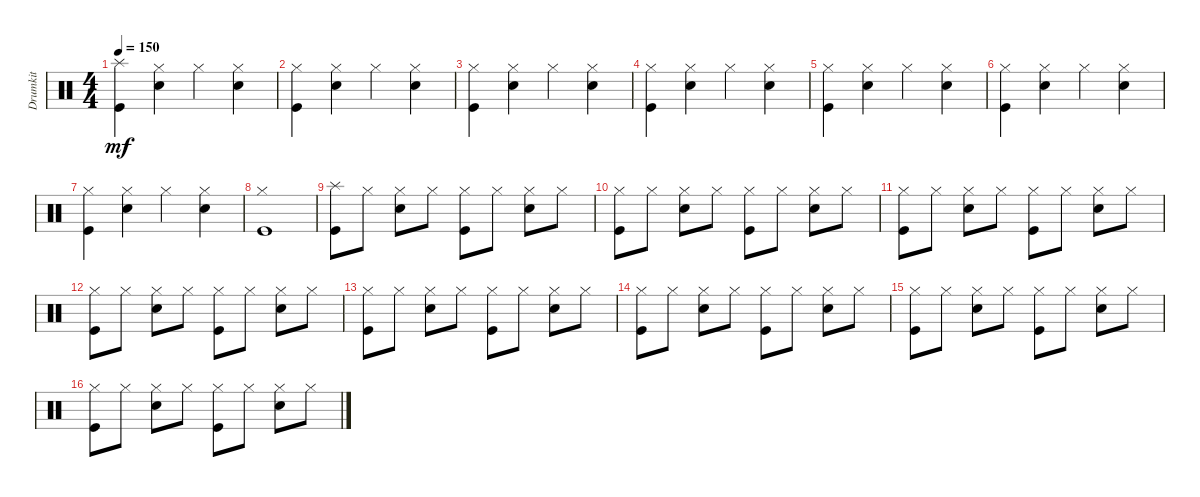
\track ("Drumkit" "Drumkit") {instrument percussion}
\staff {score}
\articulation defaults
\ts (4 4)
\tempo 150
\clef neutral
\ks c
("Kick (hit)" "Splash (hit)").4{dy mf} ("Hi-Hat (closed)" "Snare (hit) 2").4 "Hi-Hat (closed)".4 ("Hi-Hat (closed)" "Snare (hit) 2").4 |
("Kick (hit)" "Hi-Hat (closed)").4 ("Hi-Hat (closed)" "Snare (hit) 2").4 "Hi-Hat (closed)".4 ("Hi-Hat (closed)" "Snare (hit) 2").4 |
("Kick (hit)" "Hi-Hat (closed)").4 ("Hi-Hat (closed)" "Snare (hit) 2").4 "Hi-Hat (closed)".4 ("Hi-Hat (closed)" "Snare (hit) 2").4 |
("Kick (hit)" "Hi-Hat (closed)").4 ("Hi-Hat (closed)" "Snare (hit) 2").4 "Hi-Hat (closed)".4 ("Hi-Hat (closed)" "Snare (hit) 2").4 |
("Kick (hit)" "Hi-Hat (closed)").4 ("Hi-Hat (closed)" "Snare (hit) 2").4 "Hi-Hat (closed)".4 ("Hi-Hat (closed)" "Snare (hit) 2").4 |
("Kick (hit)" "Hi-Hat (closed)").4 ("Hi-Hat (closed)" "Snare (hit) 2").4 "Hi-Hat (closed)".4 ("Hi-Hat (closed)" "Snare (hit) 2").4 |
("Kick (hit)" "Hi-Hat (closed)").4 ("Hi-Hat (closed)" "Snare (hit) 2").4 "Hi-Hat (closed)".4 ("Hi-Hat (closed)" "Snare (hit) 2").4 |
("Kick (hit)" "Hi-Hat (closed)").1 |
("Kick (hit)" "Splash (hit)").8 "Hi-Hat (closed)".8 ("Hi-Hat (closed)" "Snare (hit) 2").8 "Hi-Hat (closed)".8 ("Hi-Hat (closed)" "Kick (hit)").8 "Hi-Hat (closed)".8 ("Hi-Hat (closed)" "Snare (hit) 2").8 "Hi-Hat (closed)".8 |
("Kick (hit)" "Hi-Hat (closed)").8 "Hi-Hat (closed)".8 ("Hi-Hat (closed)" "Snare (hit) 2").8 "Hi-Hat (closed)".8 ("Hi-Hat (closed)" "Kick (hit)").8 "Hi-Hat (closed)".8 ("Hi-Hat (closed)" "Snare (hit) 2").8 "Hi-Hat (closed)".8 |
("Kick (hit)" "Hi-Hat (closed)").8 "Hi-Hat (closed)".8 ("Hi-Hat (closed)" "Snare (hit) 2").8 "Hi-Hat (closed)".8 ("Hi-Hat (closed)" "Kick (hit)").8 "Hi-Hat (closed)".8 ("Hi-Hat (closed)" "Snare (hit) 2").8 "Hi-Hat (closed)".8 |
("Kick (hit)" "Hi-Hat (closed)").8 "Hi-Hat (closed)".8 ("Hi-Hat (closed)" "Snare (hit) 2").8 "Hi-Hat (closed)".8 ("Hi-Hat (closed)" "Kick (hit)").8 "Hi-Hat (closed)".8 ("Hi-Hat (closed)" "Snare (hit) 2").8 "Hi-Hat (closed)".8 |
("Kick (hit)" "Hi-Hat (closed)").8 "Hi-Hat (closed)".8 ("Hi-Hat (closed)" "Snare (hit) 2").8 "Hi-Hat (closed)".8 ("Hi-Hat (closed)" "Kick (hit)").8 "Hi-Hat (closed)".8 ("Hi-Hat (closed)" "Snare (hit) 2").8 "Hi-Hat (closed)".8 |
("Kick (hit)" "Hi-Hat (closed)").8 "Hi-Hat (closed)".8 ("Hi-Hat (closed)" "Snare (hit) 2").8 "Hi-Hat (closed)".8 ("Hi-Hat (closed)" "Kick (hit)").8 "Hi-Hat (closed)".8 ("Hi-Hat (closed)" "Snare (hit) 2").8 "Hi-Hat (closed)".8 |
("Kick (hit)" "Hi-Hat (closed)").8 "Hi-Hat (closed)".8 ("Hi-Hat (closed)" "Snare (hit) 2").8 "Hi-Hat (closed)".8 ("Hi-Hat (closed)" "Kick (hit)").8 "Hi-Hat (closed)".8 ("Hi-Hat (closed)" "Snare (hit) 2").8 "Hi-Hat (closed)".8 |
("Kick (hit)" "Hi-Hat (closed)").8 "Hi-Hat (closed)".8 ("Hi-Hat (closed)" "Snare (hit) 2").8 "Hi-Hat (closed)".8 ("Hi-Hat (closed)" "Kick (hit)").8 "Hi-Hat (closed)".8 ("Hi-Hat (closed)" "Snare (hit) 2").8 "Hi-Hat (closed)".8
